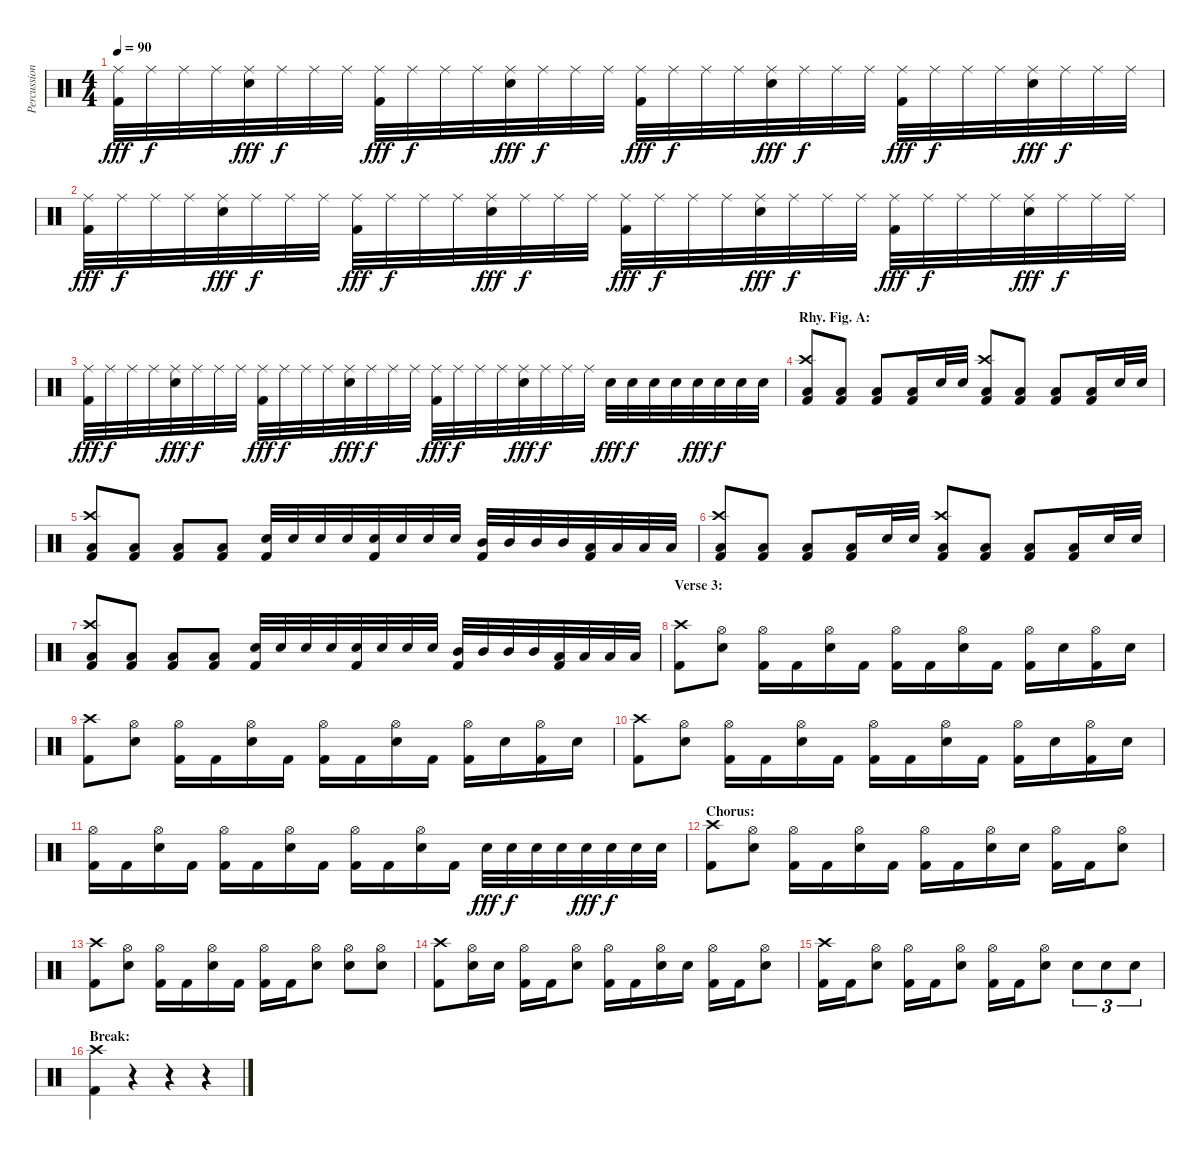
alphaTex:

\track ("Percussion" "Percussion") {instrument percussion}
\staff {score}
\articulation defaults
\ts (4 4)
\tempo 90
\clef neutral
\ks c
("Ride (middle)" "Kick (hit) 2").32{dy fff} "Ride (middle)".32{dy f} "Ride (middle)".32 "Ride (middle)".32 ("Ride (middle)" "Electric Snare (hit)").32{dy fff} "Ride (middle)".32{dy f} "Ride (middle)".32 "Ride (middle)".32 ("Ride (middle)" "Kick (hit) 2").32{dy fff} "Ride (middle)".32{dy f} "Ride (middle)".32 "Ride (middle)".32 ("Ride (middle)" "Electric Snare (hit)").32{dy fff} "Ride (middle)".32{dy f} "Ride (middle)".32 "Ride (middle)".32 ("Ride (middle)" "Kick (hit) 2").32{dy fff} "Ride (middle)".32{dy f} "Ride (middle)".32 "Ride (middle)".32 ("Ride (middle)" "Electric Snare (hit)").32{dy fff} "Ride (middle)".32{dy f} "Ride (middle)".32 "Ride (middle)".32 ("Ride (middle)" "Kick (hit) 2").32{dy fff} "Ride (middle)".32{dy f} "Ride (middle)".32 "Ride (middle)".32 ("Ride (middle)" "Electric Snare (hit)").32{dy fff} "Ride (middle)".32{dy f} "Ride (middle)".32 "Ride (middle)".32 |
("Ride (middle)" "Kick (hit) 2").32{dy fff} "Ride (middle)".32{dy f} "Ride (middle)".32 "Ride (middle)".32 ("Ride (middle)" "Electric Snare (hit)").32{dy fff} "Ride (middle)".32{dy f} "Ride (middle)".32 "Ride (middle)".32 ("Ride (middle)" "Kick (hit) 2").32{dy fff} "Ride (middle)".32{dy f} "Ride (middle)".32 "Ride (middle)".32 ("Ride (middle)" "Electric Snare (hit)").32{dy fff} "Ride (middle)".32{dy f} "Ride (middle)".32 "Ride (middle)".32 ("Ride (middle)" "Kick (hit) 2").32{dy fff} "Ride (middle)".32{dy f} "Ride (middle)".32 "Ride (middle)".32 ("Ride (middle)" "Electric Snare (hit)").32{dy fff} "Ride (middle)".32{dy f} "Ride (middle)".32 "Ride (middle)".32 ("Ride (middle)" "Kick (hit) 2").32{dy fff} "Ride (middle)".32{dy f} "Ride (middle)".32 "Ride (middle)".32 ("Ride (middle)" "Electric Snare (hit)").32{dy fff} "Ride (middle)".32{dy f} "Ride (middle)".32 "Ride (middle)".32 |
("Ride (middle)" "Kick (hit) 2").32{dy fff} "Ride (middle)".32{dy f} "Ride (middle)".32 "Ride (middle)".32 ("Ride (middle)" "Electric Snare (hit)").32{dy fff} "Ride (middle)".32{dy f} "Ride (middle)".32 "Ride (middle)".32 ("Ride (middle)" "Kick (hit) 2").32{dy fff} "Ride (middle)".32{dy f} "Ride (middle)".32 "Ride (middle)".32 ("Ride (middle)" "Electric Snare (hit)").32{dy fff} "Ride (middle)".32{dy f} "Ride (middle)".32 "Ride (middle)".32 ("Ride (middle)" "Kick (hit) 2").32{dy fff} "Ride (middle)".32{dy f} "Ride (middle)".32 "Ride (middle)".32 ("Ride (middle)" "Electric Snare (hit)").32{dy fff} "Ride (middle)".32{dy f} "Ride (middle)".32 "Ride (middle)".32 "Electric Snare (hit)".32{dy fff} "Electric Snare (hit)".32{dy f} "Electric Snare (hit)".32 "Electric Snare (hit)".32 "Electric Snare (hit)".32{dy fff} "Electric Snare (hit)".32{dy f} "Electric Snare (hit)".32 "Electric Snare (hit)".32 |
\section ("" "Rhy. Fig. A:")
("Crash high (hit)" "Low Floor Tom (hit)" "Kick (hit) 2").8 ("Low Floor Tom (hit)" "Kick (hit) 2").8 ("Low Floor Tom (hit)" "Kick (hit) 2").8 ("Low Floor Tom (hit)" "Kick (hit) 2").16 "Electric Snare (hit)".32 "Electric Snare (hit)".32 ("Crash high (hit)" "Low Floor Tom (hit)" "Kick (hit) 2").8 ("Low Floor Tom (hit)" "Kick (hit) 2").8 ("Low Floor Tom (hit)" "Kick (hit) 2").8 ("Low Floor Tom (hit)" "Kick (hit) 2").16 "Electric Snare (hit)".32 "Electric Snare (hit)".32 |
("Crash high (hit)" "Low Floor Tom (hit)" "Kick (hit) 2").8 ("Low Floor Tom (hit)" "Kick (hit) 2").8 ("Low Floor Tom (hit)" "Kick (hit) 2").8 ("Low Floor Tom (hit)" "Kick (hit) 2").8 ("Electric Snare (hit)" "Kick (hit) 2").32 "Electric Snare (hit)".32 "Electric Snare (hit)".32 "Electric Snare (hit)".32 ("Electric Snare (hit)" "Kick (hit) 2").32 "Electric Snare (hit)".32 "Electric Snare (hit)".32 "Electric Snare (hit)".32 ("Mid Tom (hit)" "Kick (hit) 2").32 "Mid Tom (hit)".32 "Mid Tom (hit)".32 "Mid Tom (hit)".32 ("Low Tom (hit)" "Kick (hit) 2").32 "Low Tom (hit)".32 "Low Tom (hit)".32 "Low Tom (hit)".32 |
("Crash high (hit)" "Low Floor Tom (hit)" "Kick (hit) 2").8 ("Low Floor Tom (hit)" "Kick (hit) 2").8 ("Low Floor Tom (hit)" "Kick (hit) 2").8 ("Low Floor Tom (hit)" "Kick (hit) 2").16 "Electric Snare (hit)".32 "Electric Snare (hit)".32 ("Crash high (hit)" "Low Floor Tom (hit)" "Kick (hit) 2").8 ("Low Floor Tom (hit)" "Kick (hit) 2").8 ("Low Floor Tom (hit)" "Kick (hit) 2").8 ("Low Floor Tom (hit)" "Kick (hit) 2").16 "Electric Snare (hit)".32 "Electric Snare (hit)".32 |
("Crash high (hit)" "Low Floor Tom (hit)" "Kick (hit) 2").8 ("Low Floor Tom (hit)" "Kick (hit) 2").8 ("Low Floor Tom (hit)" "Kick (hit) 2").8 ("Low Floor Tom (hit)" "Kick (hit) 2").8 ("Electric Snare (hit)" "Kick (hit) 2").32 "Electric Snare (hit)".32 "Electric Snare (hit)".32 "Electric Snare (hit)".32 ("Electric Snare (hit)" "Kick (hit) 2").32 "Electric Snare (hit)".32 "Electric Snare (hit)".32 "Electric Snare (hit)".32 ("Mid Tom (hit)" "Kick (hit) 2").32 "Mid Tom (hit)".32 "Mid Tom (hit)".32 "Mid Tom (hit)".32 ("Low Tom (hit)" "Kick (hit) 2").32 "Low Tom (hit)".32 "Low Tom (hit)".32 "Low Tom (hit)".32 |
\section ("" "Verse 3:")
("Crash high (hit)" "Kick (hit) 2").8 ("Hi-Hat (open)" "Electric Snare (hit)").8 ("Hi-Hat (open)" "Kick (hit) 2").16 "Kick (hit) 2".16 ("Hi-Hat (open)" "Electric Snare (hit)").16 "Kick (hit) 2".16 ("Hi-Hat (open)" "Kick (hit) 2").16 "Kick (hit) 2".16 ("Hi-Hat (open)" "Electric Snare (hit)").16 "Kick (hit) 2".16 ("Hi-Hat (open)" "Kick (hit) 2").16 "Electric Snare (hit)".16 ("Hi-Hat (open)" "Kick (hit) 2").16 "Electric Snare (hit)".16 |
("Crash high (hit)" "Kick (hit) 2").8 ("Hi-Hat (open)" "Electric Snare (hit)").8 ("Hi-Hat (open)" "Kick (hit) 2").16 "Kick (hit) 2".16 ("Hi-Hat (open)" "Electric Snare (hit)").16 "Kick (hit) 2".16 ("Hi-Hat (open)" "Kick (hit) 2").16 "Kick (hit) 2".16 ("Hi-Hat (open)" "Electric Snare (hit)").16 "Kick (hit) 2".16 ("Hi-Hat (open)" "Kick (hit) 2").16 "Electric Snare (hit)".16 ("Hi-Hat (open)" "Kick (hit) 2").16 "Electric Snare (hit)".16 |
("Crash high (hit)" "Kick (hit) 2").8 ("Hi-Hat (open)" "Electric Snare (hit)").8 ("Hi-Hat (open)" "Kick (hit) 2").16 "Kick (hit) 2".16 ("Hi-Hat (open)" "Electric Snare (hit)").16 "Kick (hit) 2".16 ("Hi-Hat (open)" "Kick (hit) 2").16 "Kick (hit) 2".16 ("Hi-Hat (open)" "Electric Snare (hit)").16 "Kick (hit) 2".16 ("Hi-Hat (open)" "Kick (hit) 2").16 "Electric Snare (hit)".16 ("Hi-Hat (open)" "Kick (hit) 2").16 "Electric Snare (hit)".16 |
("Hi-Hat (open)" "Kick (hit) 2").16 "Kick (hit) 2".16 ("Hi-Hat (open)" "Electric Snare (hit)").16 "Kick (hit) 2".16 ("Hi-Hat (open)" "Kick (hit) 2").16 "Kick (hit) 2".16 ("Hi-Hat (open)" "Electric Snare (hit)").16 "Kick (hit) 2".16 ("Hi-Hat (open)" "Kick (hit) 2").16 "Kick (hit) 2".16 ("Hi-Hat (open)" "Electric Snare (hit)").16 "Kick (hit) 2".16 "Electric Snare (hit)".32{dy fff} "Electric Snare (hit)".32{dy f} "Electric Snare (hit)".32 "Electric Snare (hit)".32 "Electric Snare (hit)".32{dy fff} "Electric Snare (hit)".32{dy f} "Electric Snare (hit)".32 "Electric Snare (hit)".32 |
\section ("" "Chorus:")
("Crash high (hit)" "Kick (hit) 2").8 ("Hi-Hat (open)" "Electric Snare (hit)").8 ("Hi-Hat (open)" "Kick (hit) 2").16 "Kick (hit) 2".16 ("Hi-Hat (open)" "Electric Snare (hit)").16 "Kick (hit) 2".16 ("Hi-Hat (open)" "Kick (hit) 2").16 "Kick (hit) 2".16 ("Hi-Hat (open)" "Electric Snare (hit)").16 "Electric Snare (hit)".16 ("Hi-Hat (open)" "Kick (hit) 2").16 "Kick (hit) 2".16 ("Hi-Hat (open)" "Electric Snare (hit)").8 |
("Crash high (hit)" "Kick (hit) 2").8 ("Hi-Hat (open)" "Electric Snare (hit)").8 ("Hi-Hat (open)" "Kick (hit) 2").16 "Kick (hit) 2".16 ("Hi-Hat (open)" "Electric Snare (hit)").16 "Kick (hit) 2".16 ("Hi-Hat (open)" "Kick (hit) 2").16 "Kick (hit) 2".16 ("Hi-Hat (open)" "Electric Snare (hit)").8 ("Hi-Hat (open)" "Electric Snare (hit)").8 ("Hi-Hat (open)" "Electric Snare (hit)").8 |
("Crash high (hit)" "Kick (hit) 2").8 ("Hi-Hat (open)" "Electric Snare (hit)").16 "Electric Snare (hit)".16 ("Hi-Hat (open)" "Kick (hit) 2").16 "Kick (hit) 2".16 ("Hi-Hat (open)" "Electric Snare (hit)").8 ("Hi-Hat (open)" "Kick (hit) 2").16 "Kick (hit) 2".16 ("Hi-Hat (open)" "Electric Snare (hit)").16 "Electric Snare (hit)".16 ("Hi-Hat (open)" "Kick (hit) 2").16 "Kick (hit) 2".16 ("Hi-Hat (open)" "Electric Snare (hit)").8 |
("Crash high (hit)" "Kick (hit) 2").16 "Kick (hit) 2".16 ("Hi-Hat (open)" "Electric Snare (hit)").8 ("Hi-Hat (open)" "Kick (hit) 2").16 "Kick (hit) 2".16 ("Hi-Hat (open)" "Electric Snare (hit)").8 ("Hi-Hat (open)" "Kick (hit) 2").16 "Kick (hit) 2".16 ("Hi-Hat (open)" "Electric Snare (hit)").8 "Electric Snare (hit)".8{tu (3 2)} "Electric Snare (hit)".8{tu (3 2)} "Electric Snare (hit)".8{tu (3 2)} |
\section ("" "Break:")
("Crash high (hit)" "Kick (hit) 2").4 r.4 r.4 r.4
